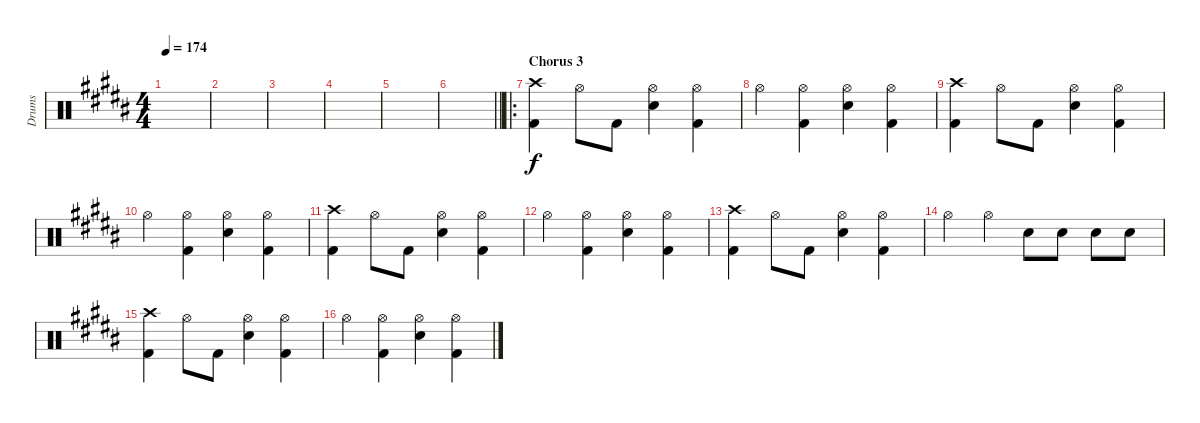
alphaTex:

\track ("Drums" "Drums") {instrument percussion}
\staff {score}
\articulation defaults
\ts (4 4)
\tempo 174
\clef neutral
\ks g#minor
|
|
|
|
|
\barLineRight lightlight
|
\ro
\section ("" "Chorus 3")
("Crash high (hit)" "Kick (hit) 2").4 "Hi-Hat (open)".8 "Kick (hit) 2".8 ("Hi-Hat (open)" "Electric Snare (hit)").4 ("Hi-Hat (open)" "Kick (hit) 2").4 |
"Hi-Hat (open)".4 ("Hi-Hat (open)" "Kick (hit) 2").4 ("Hi-Hat (open)" "Electric Snare (hit)").4 ("Hi-Hat (open)" "Kick (hit) 2").4 |
("Crash high (hit)" "Kick (hit) 2").4 "Hi-Hat (open)".8 "Kick (hit) 2".8 ("Hi-Hat (open)" "Electric Snare (hit)").4 ("Hi-Hat (open)" "Kick (hit) 2").4 |
"Hi-Hat (open)".4 ("Hi-Hat (open)" "Kick (hit) 2").4 ("Hi-Hat (open)" "Electric Snare (hit)").4 ("Hi-Hat (open)" "Kick (hit) 2").4 |
("Crash high (hit)" "Kick (hit) 2").4 "Hi-Hat (open)".8 "Kick (hit) 2".8 ("Hi-Hat (open)" "Electric Snare (hit)").4 ("Hi-Hat (open)" "Kick (hit) 2").4 |
"Hi-Hat (open)".4 ("Hi-Hat (open)" "Kick (hit) 2").4 ("Hi-Hat (open)" "Electric Snare (hit)").4 ("Hi-Hat (open)" "Kick (hit) 2").4 |
("Crash high (hit)" "Kick (hit) 2").4 "Hi-Hat (open)".8 "Kick (hit) 2".8 ("Hi-Hat (open)" "Electric Snare (hit)").4 ("Hi-Hat (open)" "Kick (hit) 2").4 |
"Hi-Hat (open)".4 "Hi-Hat (open)".4 "Electric Snare (hit)".8 "Electric Snare (hit)".8 "Electric Snare (hit)".8 "Electric Snare (hit)".8 |
("Crash high (hit)" "Kick (hit) 2").4 "Hi-Hat (open)".8 "Kick (hit) 2".8 ("Hi-Hat (open)" "Electric Snare (hit)").4 ("Hi-Hat (open)" "Kick (hit) 2").4 |
"Hi-Hat (open)".4 ("Hi-Hat (open)" "Kick (hit) 2").4 ("Hi-Hat (open)" "Electric Snare (hit)").4 ("Hi-Hat (open)" "Kick (hit) 2").4
